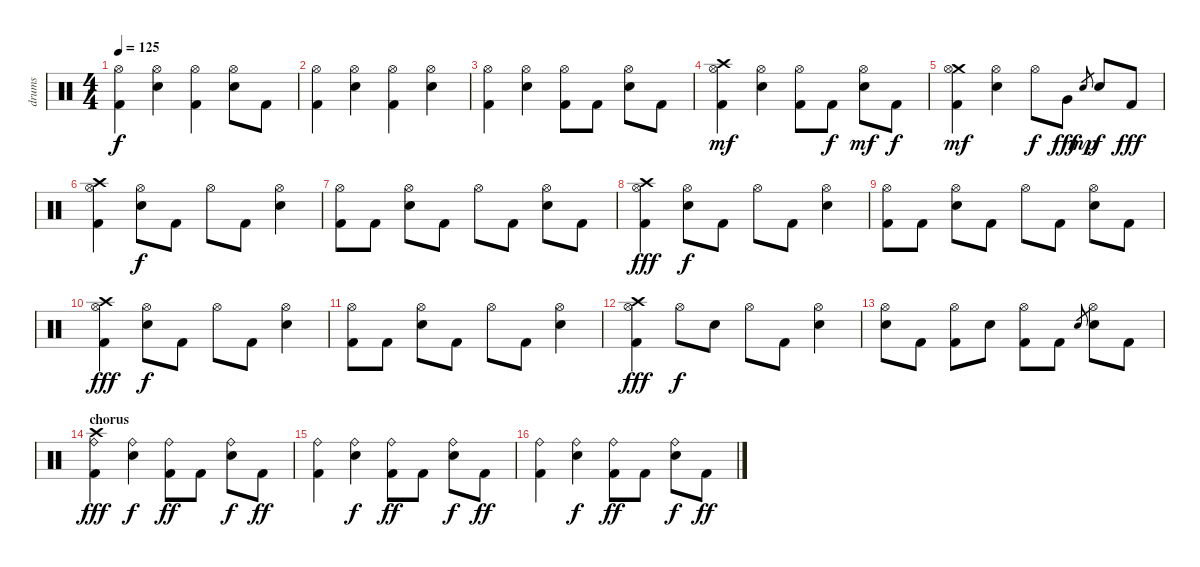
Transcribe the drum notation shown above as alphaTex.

\track ("drums" "drums") {instrument percussion}
\staff {score}
\articulation defaults
\ts (4 4)
\tempo 125
\clef neutral
\ks c
("Kick (hit) 2" "Hi-Hat (open)").4{dy f} ("Hi-Hat (open)" "Snare (hit) 2").4 ("Kick (hit) 2" "Hi-Hat (open)").4 ("Hi-Hat (open)" "Snare (hit) 2").8 "Kick (hit) 2".8 |
("Kick (hit) 2" "Hi-Hat (open)").4 ("Hi-Hat (open)" "Snare (hit) 2").4 ("Kick (hit) 2" "Hi-Hat (open)").4 ("Hi-Hat (open)" "Snare (hit) 2").4 |
("Kick (hit) 2" "Hi-Hat (open)").4 ("Hi-Hat (open)" "Snare (hit) 2").4 ("Kick (hit) 2" "Hi-Hat (open)").8 "Kick (hit) 2".8 ("Hi-Hat (open)" "Snare (hit) 2").8 "Kick (hit) 2".8 |
("Kick (hit) 2" "Crash high (hit)" "Hi-Hat (open)").4{dy mf} ("Hi-Hat (open)" "Snare (hit) 2").4 ("Kick (hit) 2" "Hi-Hat (open)").8 "Kick (hit) 2".8{dy f} ("Hi-Hat (open)" "Snare (hit) 2").8{dy mf} "Kick (hit) 2".8{dy f} |
("Kick (hit) 2" "Crash medium (hit)" "Hi-Hat (open)").4{dy mf} ("Hi-Hat (open)" "Snare (hit) 2").4 "Hi-Hat (open)".8{dy f} "Very Low Tom (hit)".8{dy fff} "Snare (hit) 2".8{gr dy mp} "Snare (hit) 2".8{dy f} "Kick (hit) 2".8{dy fff} |
("Kick (hit) 2" "Crash high (hit)" "Hi-Hat (open)").4 ("Hi-Hat (open)" "Snare (hit) 2").8{dy f} "Kick (hit) 2".8 "Hi-Hat (open)".8 "Kick (hit) 2".8 ("Hi-Hat (open)" "Snare (hit) 2").4 |
("Kick (hit) 2" "Hi-Hat (open)").8 "Kick (hit) 2".8 ("Hi-Hat (open)" "Snare (hit) 2").8 "Kick (hit) 2".8 "Hi-Hat (open)".8 "Kick (hit) 2".8 ("Hi-Hat (open)" "Snare (hit) 2").8 "Kick (hit) 2".8 |
("Kick (hit) 2" "Crash high (hit)" "Hi-Hat (open)").4{dy fff} ("Hi-Hat (open)" "Snare (hit) 2").8{dy f} "Kick (hit) 2".8 "Hi-Hat (open)".8 "Kick (hit) 2".8 ("Hi-Hat (open)" "Snare (hit) 2").4 |
("Kick (hit) 2" "Hi-Hat (open)").8 "Kick (hit) 2".8 ("Hi-Hat (open)" "Snare (hit) 2").8 "Kick (hit) 2".8 "Hi-Hat (open)".8 "Kick (hit) 2".8 ("Hi-Hat (open)" "Snare (hit) 2").8 "Kick (hit) 2".8 |
("Kick (hit) 2" "Crash high (hit)" "Hi-Hat (open)").4{dy fff} ("Hi-Hat (open)" "Snare (hit) 2").8{dy f} "Kick (hit) 2".8 "Hi-Hat (open)".8 "Kick (hit) 2".8 ("Hi-Hat (open)" "Snare (hit) 2").4 |
("Kick (hit) 2" "Hi-Hat (open)").8 "Kick (hit) 2".8 ("Hi-Hat (open)" "Snare (hit) 2").8 "Kick (hit) 2".8 "Hi-Hat (open)".8 "Kick (hit) 2".8 ("Hi-Hat (open)" "Snare (hit) 2").4 |
("Kick (hit) 2" "Crash high (hit)" "Hi-Hat (open)").4{dy fff} "Hi-Hat (open)".8{dy f} "Snare (hit) 2".8 "Hi-Hat (open)".8 "Kick (hit) 2".8 ("Hi-Hat (open)" "Snare (hit) 2").4 |
("Hi-Hat (open)" "Snare (hit) 2").8 "Kick (hit) 2".8 ("Kick (hit) 2" "Hi-Hat (open)").8 "Snare (hit) 2".8 ("Kick (hit) 2" "Hi-Hat (open)").8 "Kick (hit) 2".8 "Snare (hit) 2".8{gr} ("Hi-Hat (open)" "Snare (hit) 2").8 "Kick (hit) 2".8 |
\section ("" "chorus")
("Kick (hit) 2" "Crash high (hit)" "Ride (bell)").4{dy fff} ("Ride (bell)" "Snare (hit) 2").4{dy f} ("Kick (hit) 2" "Ride (bell)").8{dy ff} "Kick (hit) 2".8 ("Ride (bell)" "Snare (hit) 2").8{dy f} "Kick (hit) 2".8{dy ff} |
("Kick (hit) 2" "Ride (bell)").4 ("Ride (bell)" "Snare (hit) 2").4{dy f} ("Kick (hit) 2" "Ride (bell)").8{dy ff} "Kick (hit) 2".8 ("Ride (bell)" "Snare (hit) 2").8{dy f} "Kick (hit) 2".8{dy ff} |
("Kick (hit) 2" "Ride (bell)").4 ("Ride (bell)" "Snare (hit) 2").4{dy f} ("Kick (hit) 2" "Ride (bell)").8{dy ff} "Kick (hit) 2".8 ("Ride (bell)" "Snare (hit) 2").8{dy f} "Kick (hit) 2".8{dy ff}
